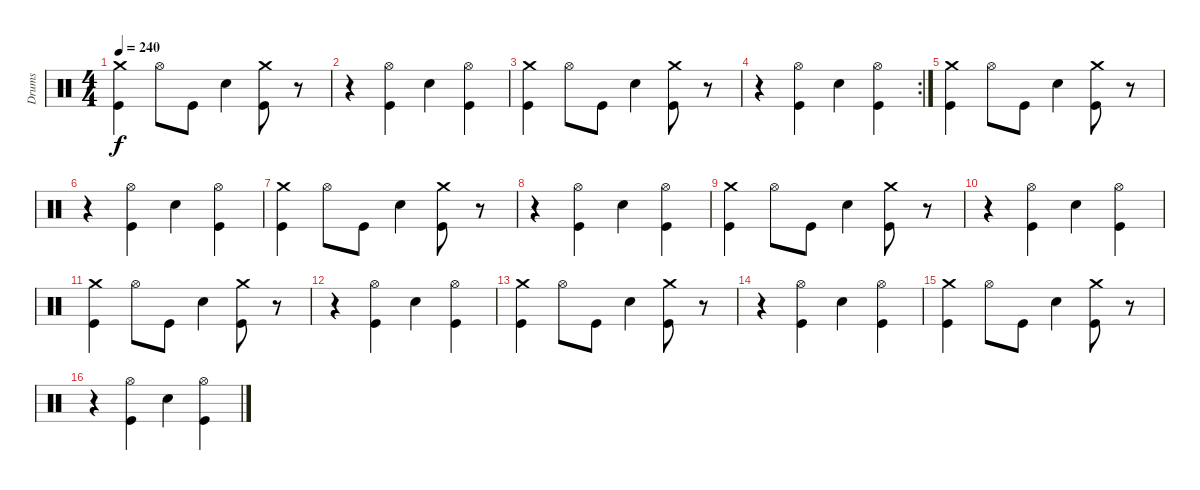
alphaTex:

\track ("Drums" "Drums") {instrument percussion}
\staff {score}
\articulation defaults
\ts (4 4)
\tempo 240
\clef neutral
\ks c
("Crash medium (hit)" "Kick (hit)").4{dy f} "Hi-Hat (open)".8 "Kick (hit)".8 "Snare (hit) 2".4 ("Crash medium (hit)" "Kick (hit)").8 r.8 |
r.4 ("Hi-Hat (open)" "Kick (hit)").4 "Snare (hit) 2".4 ("Hi-Hat (open)" "Kick (hit)").4 |
("Crash medium (hit)" "Kick (hit)").4 "Hi-Hat (open)".8 "Kick (hit)".8 "Snare (hit) 2".4 ("Crash medium (hit)" "Kick (hit)").8 r.8 |
\rc 2
r.4 ("Hi-Hat (open)" "Kick (hit)").4 "Snare (hit) 2".4 ("Hi-Hat (open)" "Kick (hit)").4 |
("Crash medium (hit)" "Kick (hit)").4 "Hi-Hat (open)".8 "Kick (hit)".8 "Snare (hit) 2".4 ("Crash medium (hit)" "Kick (hit)").8 r.8 |
r.4 ("Hi-Hat (open)" "Kick (hit)").4 "Snare (hit) 2".4 ("Hi-Hat (open)" "Kick (hit)").4 |
("Crash medium (hit)" "Kick (hit)").4 "Hi-Hat (open)".8 "Kick (hit)".8 "Snare (hit) 2".4 ("Crash medium (hit)" "Kick (hit)").8 r.8 |
r.4 ("Hi-Hat (open)" "Kick (hit)").4 "Snare (hit) 2".4 ("Hi-Hat (open)" "Kick (hit)").4 |
("Crash medium (hit)" "Kick (hit)").4 "Hi-Hat (open)".8 "Kick (hit)".8 "Snare (hit) 2".4 ("Crash medium (hit)" "Kick (hit)").8 r.8 |
r.4 ("Hi-Hat (open)" "Kick (hit)").4 "Snare (hit) 2".4 ("Hi-Hat (open)" "Kick (hit)").4 |
("Crash medium (hit)" "Kick (hit)").4 "Hi-Hat (open)".8 "Kick (hit)".8 "Snare (hit) 2".4 ("Crash medium (hit)" "Kick (hit)").8 r.8 |
r.4 ("Hi-Hat (open)" "Kick (hit)").4 "Snare (hit) 2".4 ("Hi-Hat (open)" "Kick (hit)").4 |
("Crash medium (hit)" "Kick (hit)").4 "Hi-Hat (open)".8 "Kick (hit)".8 "Snare (hit) 2".4 ("Crash medium (hit)" "Kick (hit)").8 r.8 |
r.4 ("Hi-Hat (open)" "Kick (hit)").4 "Snare (hit) 2".4 ("Hi-Hat (open)" "Kick (hit)").4 |
("Crash medium (hit)" "Kick (hit)").4 "Hi-Hat (open)".8 "Kick (hit)".8 "Snare (hit) 2".4 ("Crash medium (hit)" "Kick (hit)").8 r.8 |
r.4 ("Hi-Hat (open)" "Kick (hit)").4 "Snare (hit) 2".4 ("Hi-Hat (open)" "Kick (hit)").4
